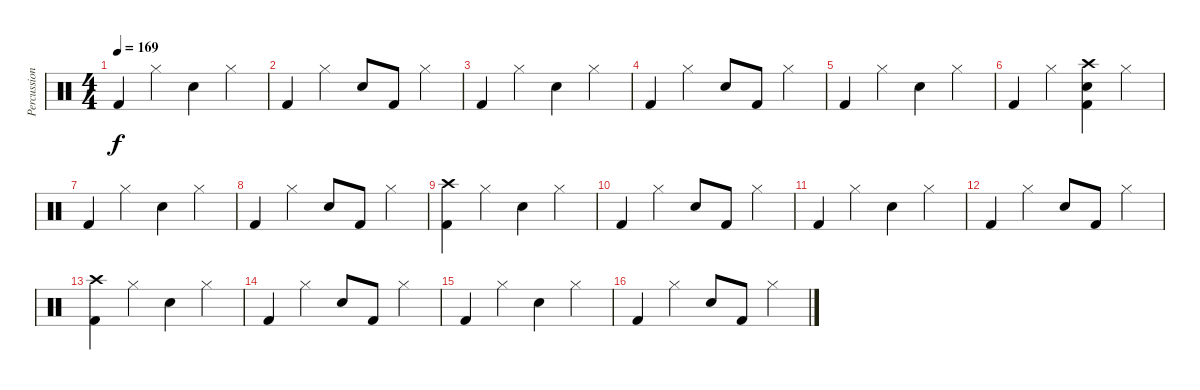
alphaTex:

\track ("Percussion" "Percussion") {instrument percussion}
\staff {score}
\articulation defaults
\ts (4 4)
\tempo 169
\clef neutral
\ks c "Kick (hit) 2".4{dy f} "Hi-Hat (closed)".4 "Snare (hit) 2".4 "Hi-Hat (closed)".4
|
"Kick (hit) 2".4 "Hi-Hat (closed)".4 "Snare (hit) 2".8 "Kick (hit) 2".8 "Hi-Hat (closed)".4 |
"Kick (hit) 2".4 "Hi-Hat (closed)".4 "Snare (hit) 2".4 "Hi-Hat (closed)".4 |
"Kick (hit) 2".4 "Hi-Hat (closed)".4 "Snare (hit) 2".8 "Kick (hit) 2".8 "Hi-Hat (closed)".4 |
"Kick (hit) 2".4 "Hi-Hat (closed)".4 "Snare (hit) 2".4 "Hi-Hat (closed)".4 |
"Kick (hit) 2".4 "Hi-Hat (closed)".4 ("Snare (hit) 2" "Crash high (hit)" "Kick (hit) 2").4 "Hi-Hat (closed)".4 |
"Kick (hit) 2".4 "Hi-Hat (closed)".4 "Snare (hit) 2".4 "Hi-Hat (closed)".4 |
"Kick (hit) 2".4 "Hi-Hat (closed)".4 "Snare (hit) 2".8 "Kick (hit) 2".8 "Hi-Hat (closed)".4 |
("Crash high (hit)" "Kick (hit) 2").4 "Hi-Hat (closed)".4 "Snare (hit) 2".4 "Hi-Hat (closed)".4 |
"Kick (hit) 2".4 "Hi-Hat (closed)".4 "Snare (hit) 2".8 "Kick (hit) 2".8 "Hi-Hat (closed)".4 |
"Kick (hit) 2".4 "Hi-Hat (closed)".4 "Snare (hit) 2".4 "Hi-Hat (closed)".4 |
"Kick (hit) 2".4 "Hi-Hat (closed)".4 "Snare (hit) 2".8 "Kick (hit) 2".8 "Hi-Hat (closed)".4 |
("Crash high (hit)" "Kick (hit) 2").4 "Hi-Hat (closed)".4 "Snare (hit) 2".4 "Hi-Hat (closed)".4 |
"Kick (hit) 2".4 "Hi-Hat (closed)".4 "Snare (hit) 2".8 "Kick (hit) 2".8 "Hi-Hat (closed)".4 |
"Kick (hit) 2".4 "Hi-Hat (closed)".4 "Snare (hit) 2".4 "Hi-Hat (closed)".4 |
"Kick (hit) 2".4 "Hi-Hat (closed)".4 "Snare (hit) 2".8 "Kick (hit) 2".8 "Hi-Hat (closed)".4
